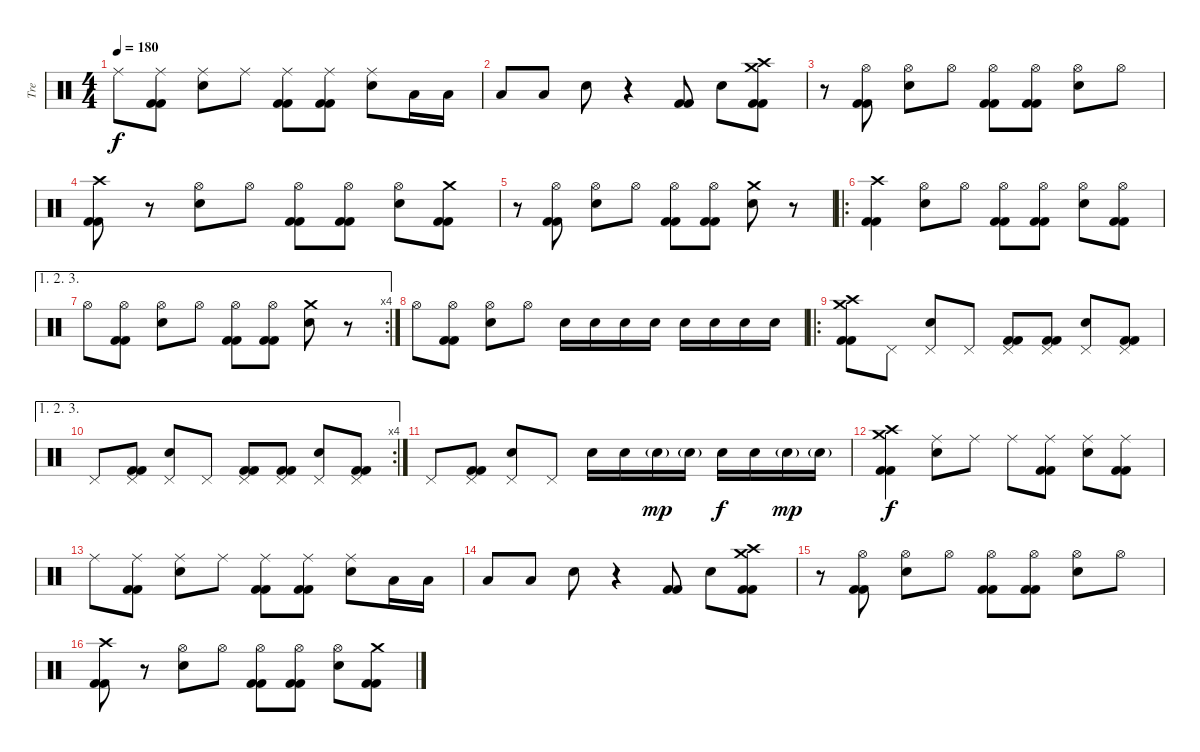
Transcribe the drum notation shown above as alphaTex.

\track ("Tre" "Tre") {instrument percussion}
\staff {score}
\articulation defaults
\ts (4 4)
\tempo 180
\clef neutral
\ks c "Ride (middle)".8{dy f}
("Ride (middle)" "Kick (hit) 2" "Kick (hit) 2").8 ("Ride (middle)" "Snare (hit) 2").8 "Ride (middle)".8 ("Ride (middle)" "Kick (hit) 2" "Kick (hit) 2").8 ("Ride (middle)" "Kick (hit) 2" "Kick (hit) 2").8 ("Ride (middle)" "Snare (hit) 2").8 "Low Tom (hit)".16 "Low Tom (hit)".16 |
"Low Tom (hit)".8 "Low Tom (hit)".8 "Snare (hit) 2".8 r.4 ("Kick (hit) 2" "Kick (hit) 2").8 "Snare (hit) 2".8 ("Crash high (hit)" "Crash medium (hit)" "Kick (hit) 2" "Kick (hit) 2").8 |
r.8 ("Hi-Hat (open)" "Kick (hit) 2" "Kick (hit) 2").8 ("Hi-Hat (open)" "Snare (hit) 2").8 "Hi-Hat (open)".8 ("Hi-Hat (open)" "Kick (hit) 2" "Kick (hit) 2").8 ("Hi-Hat (open)" "Kick (hit) 2" "Kick (hit) 2").8 ("Hi-Hat (open)" "Snare (hit) 2").8 "Hi-Hat (open)".8 |
("Crash high (hit)" "Kick (hit) 2" "Kick (hit) 2").8 r.8 ("Hi-Hat (open)" "Snare (hit) 2").8 "Hi-Hat (open)".8 ("Hi-Hat (open)" "Kick (hit) 2" "Kick (hit) 2").8 ("Hi-Hat (open)" "Kick (hit) 2" "Kick (hit) 2").8 ("Hi-Hat (open)" "Snare (hit) 2").8 ("Crash medium (hit)" "Kick (hit) 2" "Kick (hit) 2").8 |
r.8 ("Hi-Hat (open)" "Kick (hit) 2" "Kick (hit) 2").8 ("Hi-Hat (open)" "Snare (hit) 2").8 "Hi-Hat (open)".8 ("Hi-Hat (open)" "Kick (hit) 2" "Kick (hit) 2").8 ("Hi-Hat (open)" "Kick (hit) 2" "Kick (hit) 2").8 ("Crash medium (hit)" "Snare (hit) 2").8 r.8 |
\ro
("Crash high (hit)" "Kick (hit) 2" "Kick (hit) 2").4 ("Hi-Hat (open)" "Snare (hit) 2").8 "Hi-Hat (open)".8 ("Hi-Hat (open)" "Kick (hit) 2" "Kick (hit) 2").8 ("Hi-Hat (open)" "Kick (hit) 2" "Kick (hit) 2").8 ("Hi-Hat (open)" "Snare (hit) 2").8 ("Hi-Hat (open)" "Kick (hit) 2" "Kick (hit) 2").8 |
\ae (1 2 3)
\rc 4 "Hi-Hat (open)".8
("Hi-Hat (open)" "Kick (hit) 2" "Kick (hit) 2").8 ("Hi-Hat (open)" "Snare (hit) 2").8 "Hi-Hat (open)".8 ("Hi-Hat (open)" "Kick (hit) 2" "Kick (hit) 2").8 ("Hi-Hat (open)" "Kick (hit) 2" "Kick (hit) 2").8 ("Crash medium (hit)" "Snare (hit) 2").8 r.8 |
"Hi-Hat (open)".8 ("Hi-Hat (open)" "Kick (hit) 2" "Kick (hit) 2").8 ("Hi-Hat (open)" "Snare (hit) 2").8 "Hi-Hat (open)".8 "Snare (hit) 2".16 "Snare (hit) 2".16 "Snare (hit) 2".16 "Snare (hit) 2".16 "Snare (hit) 2".16 "Snare (hit) 2".16 "Snare (hit) 2".16 "Snare (hit) 2".16 |
\ro
("Crash high (hit)" "Crash medium (hit)" "Kick (hit) 2" "Kick (hit) 2").8 "Pedal Hi-Hat (hit)".8 ("Pedal Hi-Hat (hit)" "Snare (hit) 2").8 "Pedal Hi-Hat (hit)".8 ("Pedal Hi-Hat (hit)" "Kick (hit) 2" "Kick (hit) 2").8 ("Pedal Hi-Hat (hit)" "Kick (hit) 2" "Kick (hit) 2").8 ("Pedal Hi-Hat (hit)" "Snare (hit) 2").8 ("Pedal Hi-Hat (hit)" "Kick (hit) 2" "Kick (hit) 2").8 |
\ae (1 2 3)
\rc 4 "Pedal Hi-Hat (hit)".8
("Pedal Hi-Hat (hit)" "Kick (hit) 2" "Kick (hit) 2").8 ("Pedal Hi-Hat (hit)" "Snare (hit) 2").8 "Pedal Hi-Hat (hit)".8 ("Pedal Hi-Hat (hit)" "Kick (hit) 2" "Kick (hit) 2").8 ("Pedal Hi-Hat (hit)" "Kick (hit) 2" "Kick (hit) 2").8 ("Pedal Hi-Hat (hit)" "Snare (hit) 2").8 ("Pedal Hi-Hat (hit)" "Kick (hit) 2" "Kick (hit) 2").8 |
"Pedal Hi-Hat (hit)".8 ("Pedal Hi-Hat (hit)" "Kick (hit) 2" "Kick (hit) 2").8 ("Pedal Hi-Hat (hit)" "Snare (hit) 2").8 "Pedal Hi-Hat (hit)".8 "Snare (hit) 2".16 "Snare (hit) 2".16 "Snare (hit) 2"{g}.16{dy mp} "Snare (hit) 2"{g}.16 "Snare (hit) 2".16{dy f} "Snare (hit) 2".16 "Snare (hit) 2"{g}.16{dy mp} "Snare (hit) 2"{g}.16 |
("Crash high (hit)" "Crash medium (hit)" "Kick (hit) 2" "Kick (hit) 2").4{dy f} ("Ride (middle)" "Snare (hit) 2").8 "Ride (middle)".8 "Ride (middle)".8 ("Ride (middle)" "Kick (hit) 2" "Kick (hit) 2").8 ("Ride (middle)" "Snare (hit) 2").8 ("Ride (middle)" "Kick (hit) 2" "Kick (hit) 2").8 |
"Ride (middle)".8 ("Ride (middle)" "Kick (hit) 2" "Kick (hit) 2").8 ("Ride (middle)" "Snare (hit) 2").8 "Ride (middle)".8 ("Ride (middle)" "Kick (hit) 2" "Kick (hit) 2").8 ("Ride (middle)" "Kick (hit) 2" "Kick (hit) 2").8 ("Ride (middle)" "Snare (hit) 2").8 "Low Tom (hit)".16 "Low Tom (hit)".16 |
"Low Tom (hit)".8 "Low Tom (hit)".8 "Snare (hit) 2".8 r.4 ("Kick (hit) 2" "Kick (hit) 2").8 "Snare (hit) 2".8 ("Crash high (hit)" "Crash medium (hit)" "Kick (hit) 2" "Kick (hit) 2").8 |
r.8 ("Hi-Hat (open)" "Kick (hit) 2" "Kick (hit) 2").8 ("Hi-Hat (open)" "Snare (hit) 2").8 "Hi-Hat (open)".8 ("Hi-Hat (open)" "Kick (hit) 2" "Kick (hit) 2").8 ("Hi-Hat (open)" "Kick (hit) 2" "Kick (hit) 2").8 ("Hi-Hat (open)" "Snare (hit) 2").8 "Hi-Hat (open)".8 |
("Crash high (hit)" "Kick (hit) 2" "Kick (hit) 2").8 r.8 ("Hi-Hat (open)" "Snare (hit) 2").8 "Hi-Hat (open)".8 ("Hi-Hat (open)" "Kick (hit) 2" "Kick (hit) 2").8 ("Hi-Hat (open)" "Kick (hit) 2" "Kick (hit) 2").8 ("Hi-Hat (open)" "Snare (hit) 2").8 ("Crash medium (hit)" "Kick (hit) 2" "Kick (hit) 2").8
